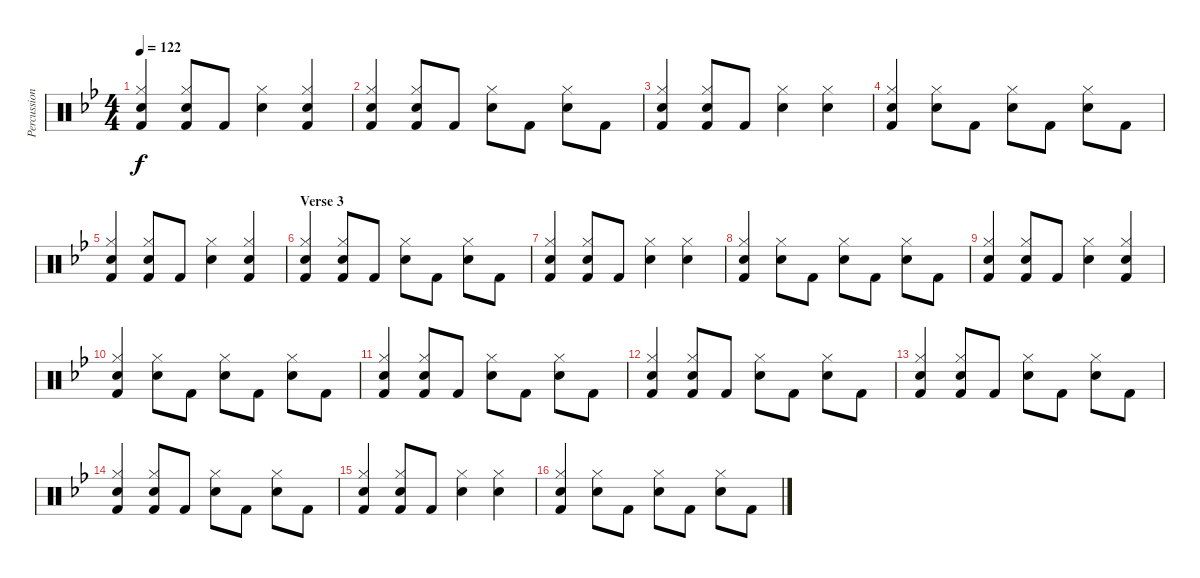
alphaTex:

\track ("Percussion" "Percussion") {instrument percussion}
\staff {score}
\articulation defaults
\ts (4 4)
\tempo 122
\clef neutral
\ks bb
("Hand Clap (hit)" "Hi-Hat (closed)" "Kick (hit) 2").4{dy f} ("Hand Clap (hit)" "Hi-Hat (closed)" "Kick (hit) 2").8 "Kick (hit) 2".8 ("Hand Clap (hit)" "Hi-Hat (closed)").4 ("Hand Clap (hit)" "Hi-Hat (closed)" "Kick (hit) 2").4 |
("Hand Clap (hit)" "Hi-Hat (closed)" "Kick (hit) 2").4 ("Hand Clap (hit)" "Hi-Hat (closed)" "Kick (hit) 2").8 "Kick (hit) 2".8 ("Hand Clap (hit)" "Hi-Hat (closed)").8 "Kick (hit) 2".8 ("Hand Clap (hit)" "Hi-Hat (closed)").8 "Kick (hit) 2".8 |
("Hand Clap (hit)" "Hi-Hat (closed)" "Kick (hit) 2").4 ("Hand Clap (hit)" "Hi-Hat (closed)" "Kick (hit) 2").8 "Kick (hit) 2".8 ("Hand Clap (hit)" "Hi-Hat (closed)").4 ("Hand Clap (hit)" "Hi-Hat (closed)").4 |
("Hand Clap (hit)" "Hi-Hat (closed)" "Kick (hit) 2").4 ("Hand Clap (hit)" "Hi-Hat (closed)").8 "Kick (hit) 2".8 ("Hand Clap (hit)" "Hi-Hat (closed)").8 "Kick (hit) 2".8 ("Hand Clap (hit)" "Hi-Hat (closed)").8 "Kick (hit) 2".8 |
("Hand Clap (hit)" "Hi-Hat (closed)" "Kick (hit) 2").4 ("Hand Clap (hit)" "Hi-Hat (closed)" "Kick (hit) 2").8 "Kick (hit) 2".8 ("Hand Clap (hit)" "Hi-Hat (closed)").4 ("Hand Clap (hit)" "Hi-Hat (closed)" "Kick (hit) 2").4 |
\section ("" "Verse 3")
("Hand Clap (hit)" "Hi-Hat (closed)" "Kick (hit) 2").4 ("Hand Clap (hit)" "Hi-Hat (closed)" "Kick (hit) 2").8 "Kick (hit) 2".8 ("Hand Clap (hit)" "Hi-Hat (closed)").8 "Kick (hit) 2".8 ("Hand Clap (hit)" "Hi-Hat (closed)").8 "Kick (hit) 2".8 |
("Hand Clap (hit)" "Hi-Hat (closed)" "Kick (hit) 2").4 ("Hand Clap (hit)" "Hi-Hat (closed)" "Kick (hit) 2").8 "Kick (hit) 2".8 ("Hand Clap (hit)" "Hi-Hat (closed)").4 ("Hand Clap (hit)" "Hi-Hat (closed)").4 |
("Hand Clap (hit)" "Hi-Hat (closed)" "Kick (hit) 2").4 ("Hand Clap (hit)" "Hi-Hat (closed)").8 "Kick (hit) 2".8 ("Hand Clap (hit)" "Hi-Hat (closed)").8 "Kick (hit) 2".8 ("Hand Clap (hit)" "Hi-Hat (closed)").8 "Kick (hit) 2".8 |
("Hand Clap (hit)" "Hi-Hat (closed)" "Kick (hit) 2").4 ("Hand Clap (hit)" "Hi-Hat (closed)" "Kick (hit) 2").8 "Kick (hit) 2".8 ("Hand Clap (hit)" "Hi-Hat (closed)").4 ("Hand Clap (hit)" "Hi-Hat (closed)" "Kick (hit) 2").4 |
("Hand Clap (hit)" "Hi-Hat (closed)" "Kick (hit) 2").4 ("Hand Clap (hit)" "Hi-Hat (closed)").8 "Kick (hit) 2".8 ("Hand Clap (hit)" "Hi-Hat (closed)").8 "Kick (hit) 2".8 ("Hand Clap (hit)" "Hi-Hat (closed)").8 "Kick (hit) 2".8 |
("Hand Clap (hit)" "Hi-Hat (closed)" "Kick (hit) 2").4 ("Hand Clap (hit)" "Hi-Hat (closed)" "Kick (hit) 2").8 "Kick (hit) 2".8 ("Hand Clap (hit)" "Hi-Hat (closed)").8 "Kick (hit) 2".8 ("Hand Clap (hit)" "Hi-Hat (closed)").8 "Kick (hit) 2".8 |
("Hand Clap (hit)" "Hi-Hat (closed)" "Kick (hit) 2").4 ("Hand Clap (hit)" "Hi-Hat (closed)" "Kick (hit) 2").8 "Kick (hit) 2".8 ("Hand Clap (hit)" "Hi-Hat (closed)").8 "Kick (hit) 2".8 ("Hand Clap (hit)" "Hi-Hat (closed)").8 "Kick (hit) 2".8 |
("Hand Clap (hit)" "Hi-Hat (closed)" "Kick (hit) 2").4 ("Hand Clap (hit)" "Hi-Hat (closed)" "Kick (hit) 2").8 "Kick (hit) 2".8 ("Hand Clap (hit)" "Hi-Hat (closed)").8 "Kick (hit) 2".8 ("Hand Clap (hit)" "Hi-Hat (closed)").8 "Kick (hit) 2".8 |
("Hand Clap (hit)" "Hi-Hat (closed)" "Kick (hit) 2").4 ("Hand Clap (hit)" "Hi-Hat (closed)" "Kick (hit) 2").8 "Kick (hit) 2".8 ("Hand Clap (hit)" "Hi-Hat (closed)").8 "Kick (hit) 2".8 ("Hand Clap (hit)" "Hi-Hat (closed)").8 "Kick (hit) 2".8 |
("Hand Clap (hit)" "Hi-Hat (closed)" "Kick (hit) 2").4 ("Hand Clap (hit)" "Hi-Hat (closed)" "Kick (hit) 2").8 "Kick (hit) 2".8 ("Hand Clap (hit)" "Hi-Hat (closed)").4 ("Hand Clap (hit)" "Hi-Hat (closed)").4 |
("Hand Clap (hit)" "Hi-Hat (closed)" "Kick (hit) 2").4 ("Hand Clap (hit)" "Hi-Hat (closed)").8 "Kick (hit) 2".8 ("Hand Clap (hit)" "Hi-Hat (closed)").8 "Kick (hit) 2".8 ("Hand Clap (hit)" "Hi-Hat (closed)").8 "Kick (hit) 2".8
